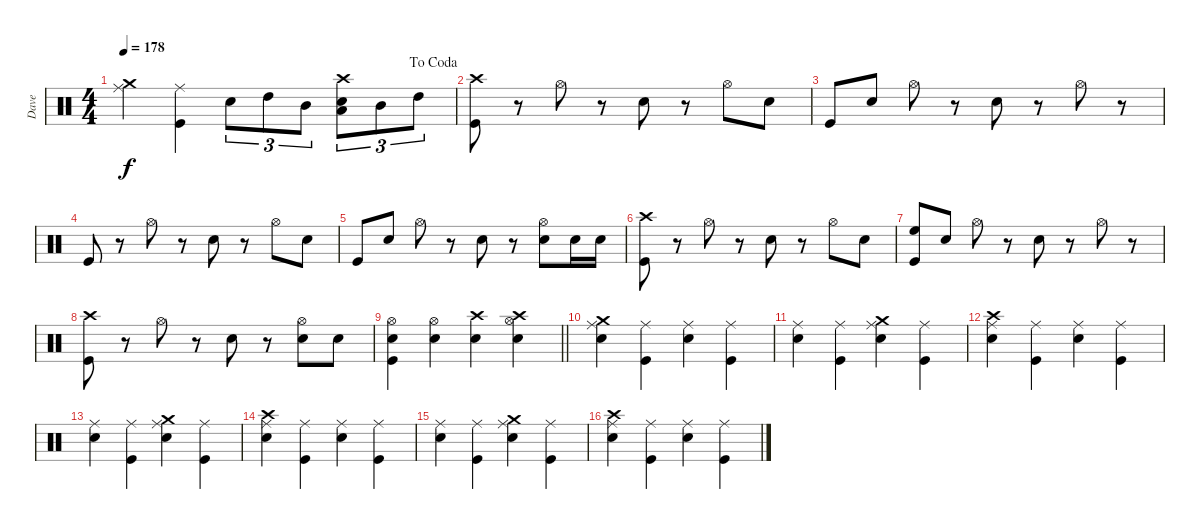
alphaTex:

\track ("Dave" "Dave") {instrument percussion}
\staff {score}
\articulation defaults
\ts (4 4)
\jump dacoda
\tempo 178
\clef neutral
\ks c
("Crash medium (hit)" "Ride (middle)").4{dy f} ("Ride (middle)" "Kick (hit)").4 "Snare (hit) 2".8{tu (3 2)} "High Tom (hit)".8{tu (3 2)} "Mid Tom (hit)".8{tu (3 2)} ("Crash high (hit)" "Snare (hit) 2" "Low Tom (hit)").8{tu (3 2)} "Mid Tom (hit)".8{tu (3 2)} "High Tom (hit)".8{tu (3 2)} |
("Crash high (hit)" "Kick (hit)").8 r.8 "Hi-Hat (open)".8 r.8 "Snare (hit) 2".8 r.8 "Hi-Hat (open)".8 "Snare (hit) 2".8 |
"Kick (hit)".8 "Snare (hit) 2".8 "Hi-Hat (open)".8 r.8 "Snare (hit) 2".8 r.8 "Hi-Hat (open)".8 r.8 |
"Kick (hit)".8 r.8 "Hi-Hat (open)".8 r.8 "Snare (hit) 2".8 r.8 "Hi-Hat (open)".8 "Snare (hit) 2".8 |
"Kick (hit)".8 "Snare (hit) 2".8 "Hi-Hat (open)".8 r.8 "Snare (hit) 2".8 r.8 ("Hi-Hat (open)" "Snare (hit) 2").8 "Snare (hit) 2".16 "Snare (hit) 2".16 |
("Crash high (hit)" "Kick (hit)").8 r.8 "Hi-Hat (open)".8 r.8 "Snare (hit) 2".8 r.8 "Hi-Hat (open)".8 "Snare (hit) 2".8 |
("High Floor Tom (hit)" "Kick (hit)").8 "Snare (hit) 2".8 "Hi-Hat (open)".8 r.8 "Snare (hit) 2".8 r.8 "Hi-Hat (open)".8 r.8 |
("Crash high (hit)" "Kick (hit)").8 r.8 "Hi-Hat (open)".8 r.8 "Snare (hit) 2".8 r.8 ("Hi-Hat (open)" "Snare (hit) 2").8 "Snare (hit) 2".8 |
\barLineRight lightlight
("Hi-Hat (open)" "Snare (hit) 2" "Kick (hit)").4 ("Hi-Hat (open)" "Snare (hit) 2").4 ("Crash high (hit)" "Snare (hit) 2").4 ("Crash high (hit)" "Hi-Hat (open)" "Snare (hit) 2").4 |
("Crash medium (hit)" "Ride (middle)" "Snare (hit) 2").4 ("Ride (middle)" "Kick (hit)").4 ("Ride (middle)" "Snare (hit) 2").4 ("Ride (middle)" "Kick (hit)").4 |
("Ride (middle)" "Snare (hit) 2").4 ("Ride (middle)" "Kick (hit)").4 ("Crash medium (hit)" "Ride (middle)" "Snare (hit) 2").4 ("Ride (middle)" "Kick (hit)").4 |
("Crash high (hit)" "Ride (middle)" "Snare (hit) 2").4 ("Ride (middle)" "Kick (hit)").4 ("Ride (middle)" "Snare (hit) 2").4 ("Ride (middle)" "Kick (hit)").4 |
("Ride (middle)" "Snare (hit) 2").4 ("Ride (middle)" "Kick (hit)").4 ("Crash medium (hit)" "Ride (middle)" "Snare (hit) 2").4 ("Ride (middle)" "Kick (hit)").4 |
("Crash high (hit)" "Ride (middle)" "Snare (hit) 2").4 ("Ride (middle)" "Kick (hit)").4 ("Ride (middle)" "Snare (hit) 2").4 ("Ride (middle)" "Kick (hit)").4 |
("Ride (middle)" "Snare (hit) 2").4 ("Ride (middle)" "Kick (hit)").4 ("Crash medium (hit)" "Ride (middle)" "Snare (hit) 2").4 ("Ride (middle)" "Kick (hit)").4 |
("Crash high (hit)" "Ride (middle)" "Snare (hit) 2").4 ("Ride (middle)" "Kick (hit)").4 ("Ride (middle)" "Snare (hit) 2").4 ("Ride (middle)" "Kick (hit)").4
